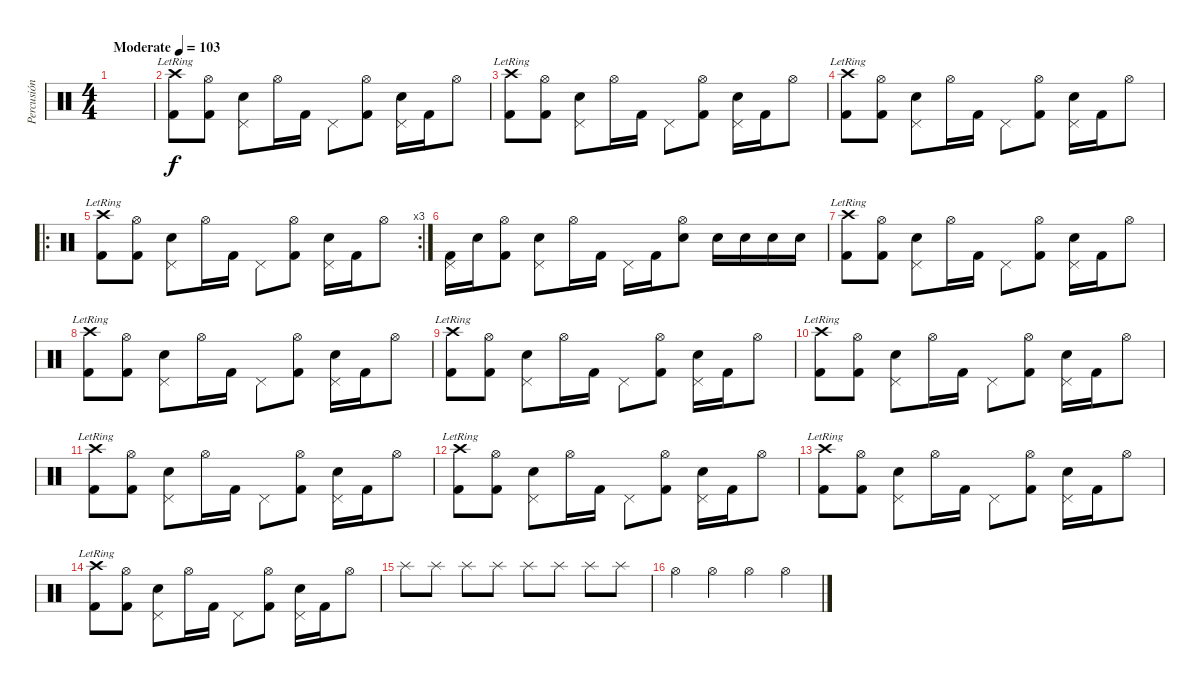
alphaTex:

\track ("Percusión" "Percusión") {instrument percussion}
\staff {score}
\articulation defaults
\ts (4 4)
\tempo (103 "Moderate")
\clef neutral
\ks c
|
("Crash high (hit)"{lr} "Kick (hit) 2").8 ("Hi-Hat (open)" "Kick (hit) 2").8 ("Pedal Hi-Hat (hit)" "Snare (hit) 2").8 "Hi-Hat (open)".16 "Kick (hit) 2".16 "Pedal Hi-Hat (hit)".8 ("Hi-Hat (open)" "Kick (hit) 2").8 ("Pedal Hi-Hat (hit)" "Snare (hit) 2").16 "Kick (hit) 2".16 "Hi-Hat (open)".8 |
("Crash high (hit)"{lr} "Kick (hit) 2").8 ("Hi-Hat (open)" "Kick (hit) 2").8 ("Pedal Hi-Hat (hit)" "Snare (hit) 2").8 "Hi-Hat (open)".16 "Kick (hit) 2".16 "Pedal Hi-Hat (hit)".8 ("Hi-Hat (open)" "Kick (hit) 2").8 ("Pedal Hi-Hat (hit)" "Snare (hit) 2").16 "Kick (hit) 2".16 "Hi-Hat (open)".8 |
("Crash high (hit)"{lr} "Kick (hit) 2").8 ("Hi-Hat (open)" "Kick (hit) 2").8 ("Pedal Hi-Hat (hit)" "Snare (hit) 2").8 "Hi-Hat (open)".16 "Kick (hit) 2".16 "Pedal Hi-Hat (hit)".8 ("Hi-Hat (open)" "Kick (hit) 2").8 ("Pedal Hi-Hat (hit)" "Snare (hit) 2").16 "Kick (hit) 2".16 "Hi-Hat (open)".8 |
\ro
\rc 3
("Crash high (hit)"{lr} "Kick (hit) 2").8 ("Hi-Hat (open)" "Kick (hit) 2").8 ("Pedal Hi-Hat (hit)" "Snare (hit) 2").8 "Hi-Hat (open)".16 "Kick (hit) 2".16 "Pedal Hi-Hat (hit)".8 ("Hi-Hat (open)" "Kick (hit) 2").8 ("Pedal Hi-Hat (hit)" "Snare (hit) 2").16 "Kick (hit) 2".16 "Hi-Hat (open)".8 |
("Pedal Hi-Hat (hit)" "Kick (hit) 2").16 "Snare (hit) 2".16 ("Hi-Hat (open)" "Kick (hit) 2").8 ("Pedal Hi-Hat (hit)" "Snare (hit) 2").8 "Hi-Hat (open)".16 "Kick (hit) 2".16 "Pedal Hi-Hat (hit)".16 "Kick (hit) 2".16 ("Hi-Hat (open)" "Snare (hit) 2").8 "Snare (hit) 2".16 "Snare (hit) 2".16 "Snare (hit) 2".16 "Snare (hit) 2".16 |
("Crash high (hit)"{lr} "Kick (hit) 2").8 ("Hi-Hat (open)" "Kick (hit) 2").8 ("Pedal Hi-Hat (hit)" "Snare (hit) 2").8 "Hi-Hat (open)".16 "Kick (hit) 2".16 "Pedal Hi-Hat (hit)".8 ("Hi-Hat (open)" "Kick (hit) 2").8 ("Pedal Hi-Hat (hit)" "Snare (hit) 2").16 "Kick (hit) 2".16 "Hi-Hat (open)".8 |
("Crash high (hit)"{lr} "Kick (hit) 2").8 ("Hi-Hat (open)" "Kick (hit) 2").8 ("Pedal Hi-Hat (hit)" "Snare (hit) 2").8 "Hi-Hat (open)".16 "Kick (hit) 2".16 "Pedal Hi-Hat (hit)".8 ("Hi-Hat (open)" "Kick (hit) 2").8 ("Pedal Hi-Hat (hit)" "Snare (hit) 2").16 "Kick (hit) 2".16 "Hi-Hat (open)".8 |
("Crash high (hit)"{lr} "Kick (hit) 2").8 ("Hi-Hat (open)" "Kick (hit) 2").8 ("Pedal Hi-Hat (hit)" "Snare (hit) 2").8 "Hi-Hat (open)".16 "Kick (hit) 2".16 "Pedal Hi-Hat (hit)".8 ("Hi-Hat (open)" "Kick (hit) 2").8 ("Pedal Hi-Hat (hit)" "Snare (hit) 2").16 "Kick (hit) 2".16 "Hi-Hat (open)".8 |
("Crash high (hit)"{lr} "Kick (hit) 2").8 ("Hi-Hat (open)" "Kick (hit) 2").8 ("Pedal Hi-Hat (hit)" "Snare (hit) 2").8 "Hi-Hat (open)".16 "Kick (hit) 2".16 "Pedal Hi-Hat (hit)".8 ("Hi-Hat (open)" "Kick (hit) 2").8 ("Pedal Hi-Hat (hit)" "Snare (hit) 2").16 "Kick (hit) 2".16 "Hi-Hat (open)".8 |
("Crash high (hit)"{lr} "Kick (hit) 2").8 ("Hi-Hat (open)" "Kick (hit) 2").8 ("Pedal Hi-Hat (hit)" "Snare (hit) 2").8 "Hi-Hat (open)".16 "Kick (hit) 2".16 "Pedal Hi-Hat (hit)".8 ("Hi-Hat (open)" "Kick (hit) 2").8 ("Pedal Hi-Hat (hit)" "Snare (hit) 2").16 "Kick (hit) 2".16 "Hi-Hat (open)".8 |
("Crash high (hit)"{lr} "Kick (hit) 2").8 ("Hi-Hat (open)" "Kick (hit) 2").8 ("Pedal Hi-Hat (hit)" "Snare (hit) 2").8 "Hi-Hat (open)".16 "Kick (hit) 2".16 "Pedal Hi-Hat (hit)".8 ("Hi-Hat (open)" "Kick (hit) 2").8 ("Pedal Hi-Hat (hit)" "Snare (hit) 2").16 "Kick (hit) 2".16 "Hi-Hat (open)".8 |
("Crash high (hit)"{lr} "Kick (hit) 2").8 ("Hi-Hat (open)" "Kick (hit) 2").8 ("Pedal Hi-Hat (hit)" "Snare (hit) 2").8 "Hi-Hat (open)".16 "Kick (hit) 2".16 "Pedal Hi-Hat (hit)".8 ("Hi-Hat (open)" "Kick (hit) 2").8 ("Pedal Hi-Hat (hit)" "Snare (hit) 2").16 "Kick (hit) 2".16 "Hi-Hat (open)".8 |
("Crash high (hit)"{lr} "Kick (hit) 2").8 ("Hi-Hat (open)" "Kick (hit) 2").8 ("Pedal Hi-Hat (hit)" "Snare (hit) 2").8 "Hi-Hat (open)".16 "Kick (hit) 2".16 "Pedal Hi-Hat (hit)".8 ("Hi-Hat (open)" "Kick (hit) 2").8 ("Pedal Hi-Hat (hit)" "Snare (hit) 2").16 "Kick (hit) 2".16 "Hi-Hat (open)".8 |
"Splash (hit)".8{dy f} "Splash (hit)".8 "Splash (hit)".8 "Splash (hit)".8 "Splash (hit)".8 "Splash (hit)".8 "Splash (hit)".8 "Splash (hit)".8 |
"Hi-Hat (open)".4 "Hi-Hat (open)".4 "Hi-Hat (open)".4 "Hi-Hat (open)".4
